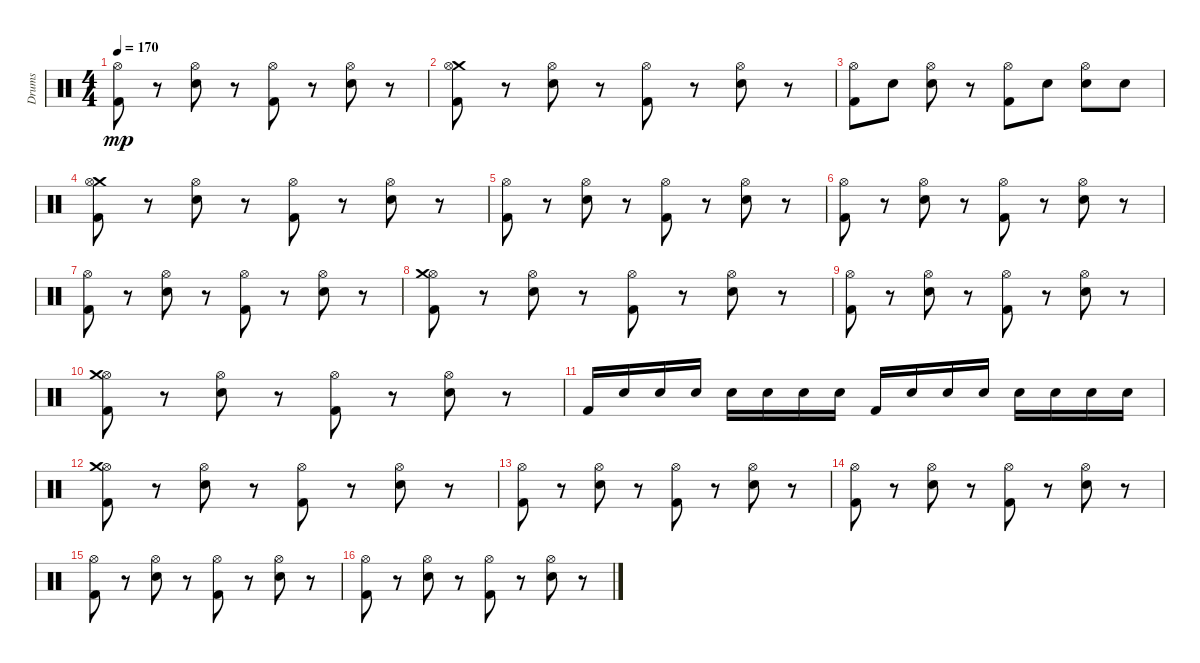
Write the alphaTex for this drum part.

\track ("Drums" "Drums") {instrument percussion}
\staff {score}
\articulation defaults
\ts (4 4)
\tempo 170
\clef neutral
\ks c
("Kick (hit) 2" "Hi-Hat (open)").8{dy mp} r.8 ("Electric Snare (hit)" "Hi-Hat (open)").8 r.8 ("Kick (hit) 2" "Hi-Hat (open)").8 r.8 ("Electric Snare (hit)" "Hi-Hat (open)").8 r.8 |
("Kick (hit) 2" "Crash medium (hit)" "Hi-Hat (open)").8 r.8 ("Electric Snare (hit)" "Hi-Hat (open)").8 r.8 ("Kick (hit) 2" "Hi-Hat (open)").8 r.8 ("Electric Snare (hit)" "Hi-Hat (open)").8 r.8 |
("Kick (hit) 2" "Hi-Hat (open)").8 "Electric Snare (hit)".8 ("Hi-Hat (open)" "Electric Snare (hit)").8 r.8 ("Kick (hit) 2" "Hi-Hat (open)").8 "Electric Snare (hit)".8 ("Hi-Hat (open)" "Electric Snare (hit)").8 "Electric Snare (hit)".8 |
("Crash medium (hit)" "Kick (hit) 2" "Hi-Hat (open)").8 r.8 ("Electric Snare (hit)" "Hi-Hat (open)").8 r.8 ("Hi-Hat (open)" "Kick (hit) 2").8 r.8 ("Hi-Hat (open)" "Electric Snare (hit)").8 r.8 |
("Kick (hit) 2" "Hi-Hat (open)").8 r.8 ("Electric Snare (hit)" "Hi-Hat (open)").8 r.8 ("Kick (hit) 2" "Hi-Hat (open)").8 r.8 ("Hi-Hat (open)" "Electric Snare (hit)").8 r.8 |
("Kick (hit) 2" "Hi-Hat (open)").8 r.8 ("Hi-Hat (open)" "Electric Snare (hit)").8 r.8 ("Hi-Hat (open)" "Kick (hit) 2").8 r.8 ("Electric Snare (hit)" "Hi-Hat (open)").8 r.8 |
("Kick (hit) 2" "Hi-Hat (open)").8 r.8 ("Hi-Hat (open)" "Electric Snare (hit)").8 r.8 ("Kick (hit) 2" "Hi-Hat (open)").8 r.8 ("Electric Snare (hit)" "Hi-Hat (open)").8 r.8 |
("Hi-Hat (open)" "Kick (hit) 2" "Crash medium (hit)").8 r.8 ("Electric Snare (hit)" "Hi-Hat (open)").8 r.8 ("Hi-Hat (open)" "Kick (hit) 2").8 r.8 ("Hi-Hat (open)" "Electric Snare (hit)").8 r.8 |
("Kick (hit) 2" "Hi-Hat (open)").8 r.8 ("Hi-Hat (open)" "Electric Snare (hit)").8 r.8 ("Kick (hit) 2" "Hi-Hat (open)").8 r.8 ("Electric Snare (hit)" "Hi-Hat (open)").8 r.8 |
("Kick (hit) 2" "Hi-Hat (open)" "Crash medium (hit)").8 r.8 ("Hi-Hat (open)" "Electric Snare (hit)").8 r.8 ("Hi-Hat (open)" "Kick (hit) 2").8 r.8 ("Electric Snare (hit)" "Hi-Hat (open)").8 r.8 |
"Kick (hit) 2".16 "Electric Snare (hit)".16 "Electric Snare (hit)".16 "Electric Snare (hit)".16 "Electric Snare (hit)".16 "Electric Snare (hit)".16 "Electric Snare (hit)".16 "Electric Snare (hit)".16 "Kick (hit) 2".16 "Electric Snare (hit)".16 "Electric Snare (hit)".16 "Electric Snare (hit)".16 "Electric Snare (hit)".16 "Electric Snare (hit)".16 "Electric Snare (hit)".16 "Electric Snare (hit)".16 |
("Hi-Hat (open)" "Crash medium (hit)" "Kick (hit) 2").8 r.8 ("Electric Snare (hit)" "Hi-Hat (open)").8 r.8 ("Kick (hit) 2" "Hi-Hat (open)").8 r.8 ("Hi-Hat (open)" "Electric Snare (hit)").8 r.8 |
("Hi-Hat (open)" "Kick (hit) 2").8 r.8 ("Electric Snare (hit)" "Hi-Hat (open)").8 r.8 ("Hi-Hat (open)" "Kick (hit) 2").8 r.8 ("Electric Snare (hit)" "Hi-Hat (open)").8 r.8 |
("Kick (hit) 2" "Hi-Hat (open)").8 r.8 ("Electric Snare (hit)" "Hi-Hat (open)").8 r.8 ("Kick (hit) 2" "Hi-Hat (open)").8 r.8 ("Electric Snare (hit)" "Hi-Hat (open)").8 r.8 |
("Hi-Hat (open)" "Kick (hit) 2").8 r.8 ("Electric Snare (hit)" "Hi-Hat (open)").8 r.8 ("Kick (hit) 2" "Hi-Hat (open)").8 r.8 ("Hi-Hat (open)" "Electric Snare (hit)").8 r.8 |
("Hi-Hat (open)" "Kick (hit) 2").8 r.8 ("Electric Snare (hit)" "Hi-Hat (open)").8 r.8 ("Hi-Hat (open)" "Kick (hit) 2").8 r.8 ("Hi-Hat (open)" "Electric Snare (hit)").8 r.8
